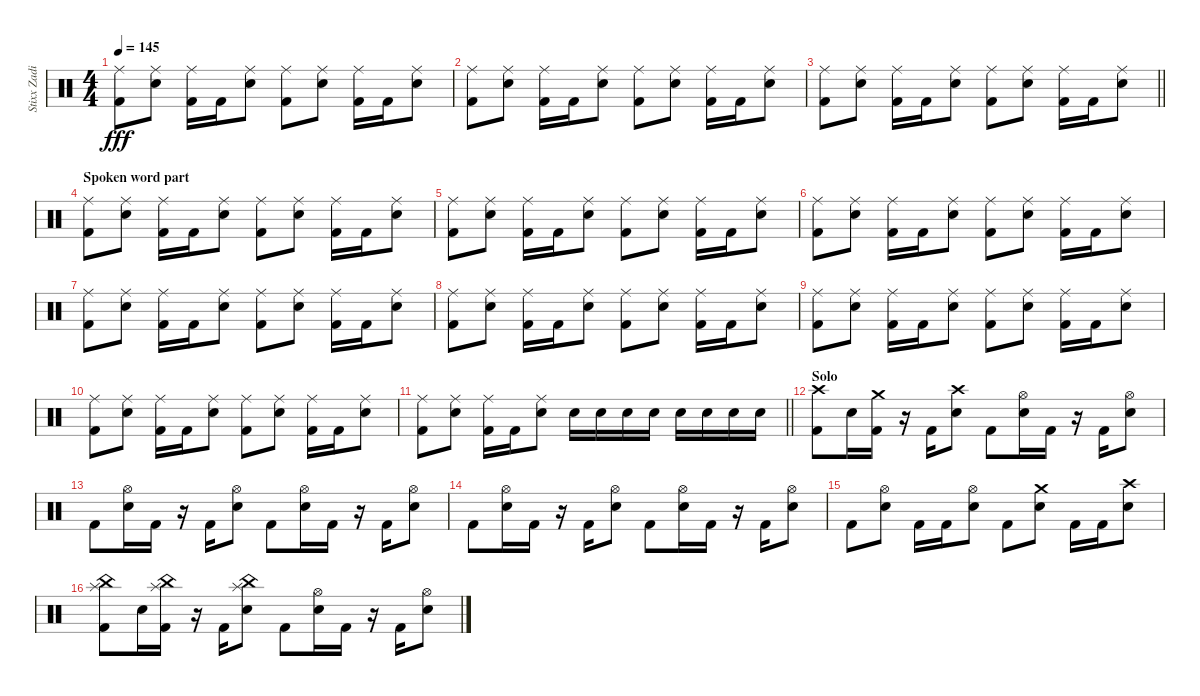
\track ("Stixx Zadina (Sticks it in ya)" "Stixx Zadi") {instrument percussion}
\staff {score}
\articulation defaults
\ts (4 4)
\tempo 145
\clef neutral
\ks c
("Ride (middle)" "Kick (hit) 2").8{dy fff} ("Ride (middle)" "Electric Snare (hit)").8 ("Ride (middle)" "Kick (hit) 2").16 "Kick (hit) 2".16 ("Ride (middle)" "Electric Snare (hit)").8 ("Ride (middle)" "Kick (hit) 2").8 ("Ride (middle)" "Electric Snare (hit)").8 ("Ride (middle)" "Kick (hit) 2").16 "Kick (hit) 2".16 ("Ride (middle)" "Electric Snare (hit)").8 |
("Ride (middle)" "Kick (hit) 2").8 ("Ride (middle)" "Electric Snare (hit)").8 ("Ride (middle)" "Kick (hit) 2").16 "Kick (hit) 2".16 ("Ride (middle)" "Electric Snare (hit)").8 ("Ride (middle)" "Kick (hit) 2").8 ("Ride (middle)" "Electric Snare (hit)").8 ("Ride (middle)" "Kick (hit) 2").16 "Kick (hit) 2".16 ("Ride (middle)" "Electric Snare (hit)").8 |
\barLineRight lightlight
("Ride (middle)" "Kick (hit) 2").8 ("Ride (middle)" "Electric Snare (hit)").8 ("Ride (middle)" "Kick (hit) 2").16 "Kick (hit) 2".16 ("Ride (middle)" "Electric Snare (hit)").8 ("Ride (middle)" "Kick (hit) 2").8 ("Ride (middle)" "Electric Snare (hit)").8 ("Ride (middle)" "Kick (hit) 2").16 "Kick (hit) 2".16 ("Ride (middle)" "Electric Snare (hit)").8 |
\section ("" "Spoken word part")
("Ride (middle)" "Kick (hit) 2").8 ("Ride (middle)" "Electric Snare (hit)").8 ("Ride (middle)" "Kick (hit) 2").16 "Kick (hit) 2".16 ("Ride (middle)" "Electric Snare (hit)").8 ("Ride (middle)" "Kick (hit) 2").8 ("Ride (middle)" "Electric Snare (hit)").8 ("Ride (middle)" "Kick (hit) 2").16 "Kick (hit) 2".16 ("Ride (middle)" "Electric Snare (hit)").8 |
("Ride (middle)" "Kick (hit) 2").8 ("Ride (middle)" "Electric Snare (hit)").8 ("Ride (middle)" "Kick (hit) 2").16 "Kick (hit) 2".16 ("Ride (middle)" "Electric Snare (hit)").8 ("Ride (middle)" "Kick (hit) 2").8 ("Ride (middle)" "Electric Snare (hit)").8 ("Ride (middle)" "Kick (hit) 2").16 "Kick (hit) 2".16 ("Ride (middle)" "Electric Snare (hit)").8 |
("Ride (middle)" "Kick (hit) 2").8 ("Ride (middle)" "Electric Snare (hit)").8 ("Ride (middle)" "Kick (hit) 2").16 "Kick (hit) 2".16 ("Ride (middle)" "Electric Snare (hit)").8 ("Ride (middle)" "Kick (hit) 2").8 ("Ride (middle)" "Electric Snare (hit)").8 ("Ride (middle)" "Kick (hit) 2").16 "Kick (hit) 2".16 ("Ride (middle)" "Electric Snare (hit)").8 |
("Ride (middle)" "Kick (hit) 2").8 ("Ride (middle)" "Electric Snare (hit)").8 ("Ride (middle)" "Kick (hit) 2").16 "Kick (hit) 2".16 ("Ride (middle)" "Electric Snare (hit)").8 ("Ride (middle)" "Kick (hit) 2").8 ("Ride (middle)" "Electric Snare (hit)").8 ("Ride (middle)" "Kick (hit) 2").16 "Kick (hit) 2".16 ("Ride (middle)" "Electric Snare (hit)").8 |
("Ride (middle)" "Kick (hit) 2").8 ("Ride (middle)" "Electric Snare (hit)").8 ("Ride (middle)" "Kick (hit) 2").16 "Kick (hit) 2".16 ("Ride (middle)" "Electric Snare (hit)").8 ("Ride (middle)" "Kick (hit) 2").8 ("Ride (middle)" "Electric Snare (hit)").8 ("Ride (middle)" "Kick (hit) 2").16 "Kick (hit) 2".16 ("Ride (middle)" "Electric Snare (hit)").8 |
("Ride (middle)" "Kick (hit) 2").8 ("Ride (middle)" "Electric Snare (hit)").8 ("Ride (middle)" "Kick (hit) 2").16 "Kick (hit) 2".16 ("Ride (middle)" "Electric Snare (hit)").8 ("Ride (middle)" "Kick (hit) 2").8 ("Ride (middle)" "Electric Snare (hit)").8 ("Ride (middle)" "Kick (hit) 2").16 "Kick (hit) 2".16 ("Ride (middle)" "Electric Snare (hit)").8 |
("Ride (middle)" "Kick (hit) 2").8 ("Ride (middle)" "Electric Snare (hit)").8 ("Ride (middle)" "Kick (hit) 2").16 "Kick (hit) 2".16 ("Ride (middle)" "Electric Snare (hit)").8 ("Ride (middle)" "Kick (hit) 2").8 ("Ride (middle)" "Electric Snare (hit)").8 ("Ride (middle)" "Kick (hit) 2").16 "Kick (hit) 2".16 ("Ride (middle)" "Electric Snare (hit)").8 |
\barLineRight lightlight
("Ride (middle)" "Kick (hit) 2").8 ("Ride (middle)" "Electric Snare (hit)").8 ("Ride (middle)" "Kick (hit) 2").16 "Kick (hit) 2".16 ("Ride (middle)" "Electric Snare (hit)").8 "Electric Snare (hit)".16 "Electric Snare (hit)".16 "Electric Snare (hit)".16 "Electric Snare (hit)".16 "Electric Snare (hit)".16 "Electric Snare (hit)".16 "Electric Snare (hit)".16 "Electric Snare (hit)".16 |
\section ("" "Solo")
("Crash high (hit)" "Kick (hit) 2").8 "Electric Snare (hit)".16 ("Crash medium (hit)" "Kick (hit) 2").16 r.16 "Kick (hit) 2".16 ("Crash high (hit)" "Electric Snare (hit)").8 "Kick (hit) 2".8 ("Hi-Hat (open)" "Electric Snare (hit)").16 "Kick (hit) 2".16 r.16 "Kick (hit) 2".16 ("Hi-Hat (open)" "Electric Snare (hit)").8 |
"Kick (hit) 2".8 ("Hi-Hat (open)" "Electric Snare (hit)").16 "Kick (hit) 2".16 r.16 "Kick (hit) 2".16 ("Hi-Hat (open)" "Electric Snare (hit)").8 "Kick (hit) 2".8 ("Hi-Hat (open)" "Electric Snare (hit)").16 "Kick (hit) 2".16 r.16 "Kick (hit) 2".16 ("Hi-Hat (open)" "Electric Snare (hit)").8 |
"Kick (hit) 2".8 ("Hi-Hat (open)" "Electric Snare (hit)").16 "Kick (hit) 2".16 r.16 "Kick (hit) 2".16 ("Hi-Hat (open)" "Electric Snare (hit)").8 "Kick (hit) 2".8 ("Hi-Hat (open)" "Electric Snare (hit)").16 "Kick (hit) 2".16 r.16 "Kick (hit) 2".16 ("Hi-Hat (open)" "Electric Snare (hit)").8 |
"Kick (hit) 2".8 ("Hi-Hat (open)" "Electric Snare (hit)").8 "Kick (hit) 2".16 "Kick (hit) 2".16 ("Hi-Hat (open)" "Electric Snare (hit)").8 "Kick (hit) 2".8 ("Crash medium (hit)" "Electric Snare (hit)").8 "Kick (hit) 2".16 "Kick (hit) 2".16 ("Crash high (hit)" "Electric Snare (hit)").8 |
("Splash (hit)" "China (hit)" "Kick (hit) 2").8 "Electric Snare (hit)".16 ("Splash (hit)" "China (hit)" "Kick (hit) 2").16 r.16 "Kick (hit) 2".16 ("Splash (hit)" "China (hit)" "Electric Snare (hit)").8 "Kick (hit) 2".8 ("Hi-Hat (open)" "Electric Snare (hit)").16 "Kick (hit) 2".16 r.16 "Kick (hit) 2".16 ("Hi-Hat (open)" "Electric Snare (hit)").8
